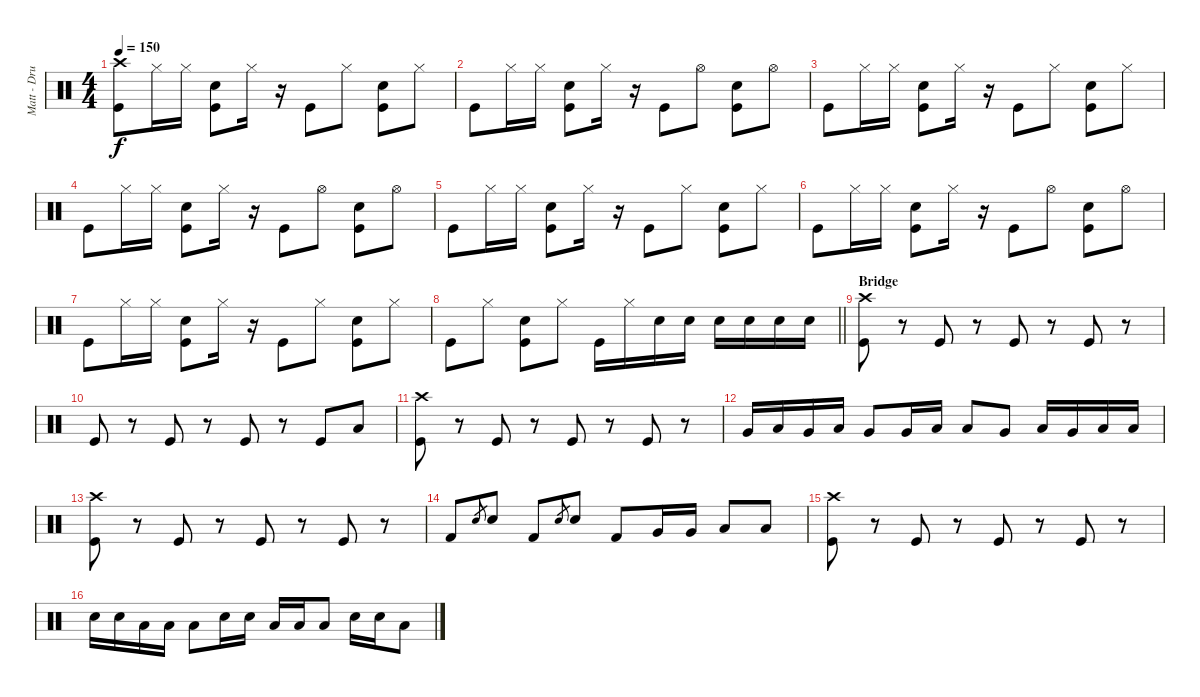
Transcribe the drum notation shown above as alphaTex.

\track ("Matt - Drums" "Matt - Dru") {instrument percussion}
\staff {score}
\articulation defaults
\ts (4 4)
\tempo 150
\clef neutral
\ks c
("Crash high (hit)" "Kick (hit)").8{dy f} "Hi-Hat (closed)".16 "Hi-Hat (closed)".16 ("Electric Snare (hit)" "Kick (hit)").8 "Hi-Hat (closed)".16 r.16 "Kick (hit)".8 "Hi-Hat (closed)".8 ("Electric Snare (hit)" "Kick (hit)").8 "Hi-Hat (closed)".8 |
"Kick (hit)".8 "Hi-Hat (closed)".16 "Hi-Hat (closed)".16 ("Electric Snare (hit)" "Kick (hit)").8 "Hi-Hat (closed)".16 r.16 "Kick (hit)".8 "Hi-Hat (open)".8 ("Electric Snare (hit)" "Kick (hit)").8 "Hi-Hat (open)".8 |
"Kick (hit)".8 "Hi-Hat (closed)".16 "Hi-Hat (closed)".16 ("Electric Snare (hit)" "Kick (hit)").8 "Hi-Hat (closed)".16 r.16 "Kick (hit)".8 "Hi-Hat (closed)".8 ("Electric Snare (hit)" "Kick (hit)").8 "Hi-Hat (closed)".8 |
"Kick (hit)".8 "Hi-Hat (closed)".16 "Hi-Hat (closed)".16 ("Electric Snare (hit)" "Kick (hit)").8 "Hi-Hat (closed)".16 r.16 "Kick (hit)".8 "Hi-Hat (open)".8 ("Electric Snare (hit)" "Kick (hit)").8 "Hi-Hat (open)".8 |
"Kick (hit)".8 "Hi-Hat (closed)".16 "Hi-Hat (closed)".16 ("Electric Snare (hit)" "Kick (hit)").8 "Hi-Hat (closed)".16 r.16 "Kick (hit)".8 "Hi-Hat (closed)".8 ("Electric Snare (hit)" "Kick (hit)").8 "Hi-Hat (closed)".8 |
"Kick (hit)".8 "Hi-Hat (closed)".16 "Hi-Hat (closed)".16 ("Electric Snare (hit)" "Kick (hit)").8 "Hi-Hat (closed)".16 r.16 "Kick (hit)".8 "Hi-Hat (open)".8 ("Electric Snare (hit)" "Kick (hit)").8 "Hi-Hat (open)".8 |
"Kick (hit)".8 "Hi-Hat (closed)".16 "Hi-Hat (closed)".16 ("Electric Snare (hit)" "Kick (hit)").8 "Hi-Hat (closed)".16 r.16 "Kick (hit)".8 "Hi-Hat (closed)".8 ("Electric Snare (hit)" "Kick (hit)").8 "Hi-Hat (closed)".8 |
\barLineRight lightlight "Kick (hit)".8 "Hi-Hat (closed)".8
("Electric Snare (hit)" "Kick (hit)").8 "Hi-Hat (closed)".8 "Kick (hit)".16 "Hi-Hat (closed)".16 "Electric Snare (hit)".16 "Electric Snare (hit)".16 "Electric Snare (hit)".16 "Electric Snare (hit)".16 "Electric Snare (hit)".16 "Electric Snare (hit)".16 |
\section ("" "Bridge")
("Crash high (hit)" "Kick (hit)").8 r.8 "Kick (hit)".8 r.8 "Kick (hit)".8 r.8 "Kick (hit)".8 r.8 |
"Kick (hit)".8 r.8 "Kick (hit)".8 r.8 "Kick (hit)".8 r.8 "Kick (hit)".8 "Low Tom (hit)".8 |
("Crash high (hit)" "Kick (hit)").8 r.8 "Kick (hit)".8 r.8 "Kick (hit)".8 r.8 "Kick (hit)".8 r.8 |
"Very Low Tom (hit)".16 "Low Tom (hit)".16 "Very Low Tom (hit)".16 "Low Tom (hit)".16 "Very Low Tom (hit)".8 "Very Low Tom (hit)".16 "Low Tom (hit)".16 "Low Tom (hit)".8 "Very Low Tom (hit)".8 "Low Tom (hit)".16 "Very Low Tom (hit)".16 "Low Floor Tom (hit)".16 "Low Floor Tom (hit)".16 |
("Crash high (hit)" "Kick (hit)").8 r.8 "Kick (hit)".8 r.8 "Kick (hit)".8 r.8 "Kick (hit)".8 r.8 |
"Kick (hit) 2".8 "Electric Snare (hit)".8{gr} "Electric Snare (hit)".8 "Kick (hit) 2".8 "Electric Snare (hit)".8{gr} "Electric Snare (hit)".8 "Kick (hit) 2".8 "Very Low Tom (hit)".16 "Very Low Tom (hit)".16 "Low Tom (hit)".8 "Low Tom (hit)".8 |
("Crash high (hit)" "Kick (hit)").8 r.8 "Kick (hit)".8 r.8 "Kick (hit)".8 r.8 "Kick (hit)".8 r.8 |
"Electric Snare (hit)".16 "Electric Snare (hit)".16 "Low Floor Tom (hit)".16 "Low Floor Tom (hit)".16 "Low Floor Tom (hit)".8 "Electric Snare (hit)".16 "Electric Snare (hit)".16 "Low Floor Tom (hit)".16 "Low Floor Tom (hit)".16 "Low Floor Tom (hit)".8 "Electric Snare (hit)".16 "Electric Snare (hit)".16 "Low Floor Tom (hit)".8
